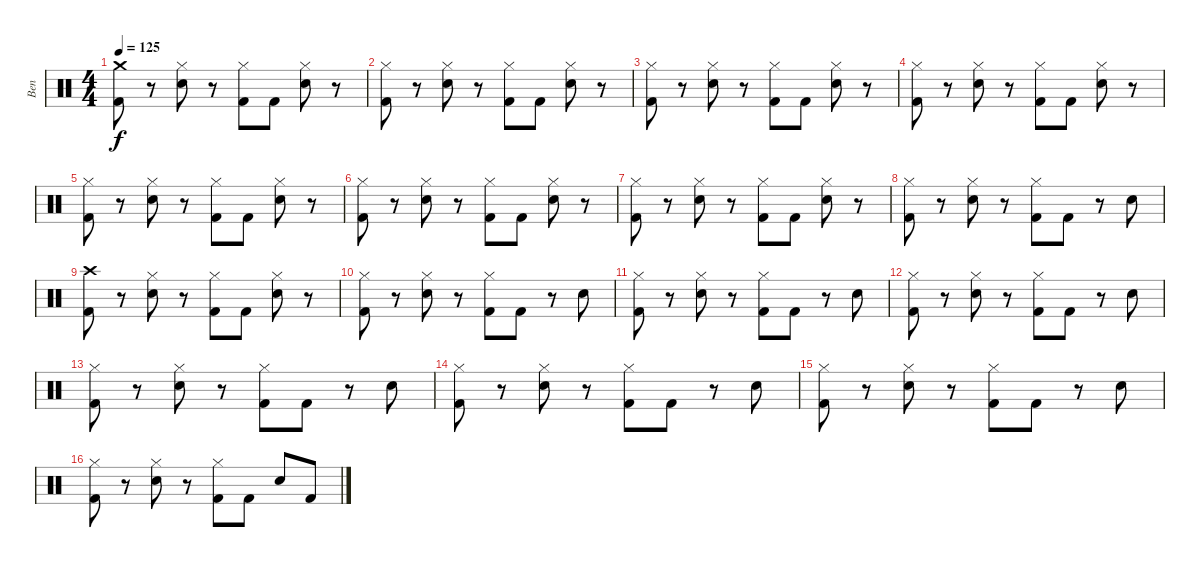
\track ("Ben" "Ben") {instrument percussion}
\staff {score}
\articulation defaults
\ts (4 4)
\tempo 125
\clef neutral
\ks c
("Crash medium (hit)" "Kick (hit) 2").8{dy f} r.8 ("Snare (hit) 2" "Hi-Hat (closed)").8 r.8 ("Kick (hit) 2" "Hi-Hat (closed)").8 "Kick (hit) 2".8 ("Snare (hit) 2" "Hi-Hat (closed)").8 r.8 |
("Kick (hit) 2" "Hi-Hat (closed)").8 r.8 ("Snare (hit) 2" "Hi-Hat (closed)").8 r.8 ("Kick (hit) 2" "Hi-Hat (closed)").8 "Kick (hit) 2".8 ("Snare (hit) 2" "Hi-Hat (closed)").8 r.8 |
("Kick (hit) 2" "Hi-Hat (closed)").8 r.8 ("Snare (hit) 2" "Hi-Hat (closed)").8 r.8 ("Kick (hit) 2" "Hi-Hat (closed)").8 "Kick (hit) 2".8 ("Snare (hit) 2" "Hi-Hat (closed)").8 r.8 |
("Kick (hit) 2" "Hi-Hat (closed)").8 r.8 ("Snare (hit) 2" "Hi-Hat (closed)").8 r.8 ("Kick (hit) 2" "Hi-Hat (closed)").8 "Kick (hit) 2".8 ("Snare (hit) 2" "Hi-Hat (closed)").8 r.8 |
("Kick (hit) 2" "Hi-Hat (closed)").8 r.8 ("Snare (hit) 2" "Hi-Hat (closed)").8 r.8 ("Kick (hit) 2" "Hi-Hat (closed)").8 "Kick (hit) 2".8 ("Snare (hit) 2" "Hi-Hat (closed)").8 r.8 |
("Kick (hit) 2" "Hi-Hat (closed)").8 r.8 ("Snare (hit) 2" "Hi-Hat (closed)").8 r.8 ("Kick (hit) 2" "Hi-Hat (closed)").8 "Kick (hit) 2".8 ("Snare (hit) 2" "Hi-Hat (closed)").8 r.8 |
("Kick (hit) 2" "Hi-Hat (closed)").8 r.8 ("Snare (hit) 2" "Hi-Hat (closed)").8 r.8 ("Kick (hit) 2" "Hi-Hat (closed)").8 "Kick (hit) 2".8 ("Snare (hit) 2" "Hi-Hat (closed)").8 r.8 |
("Kick (hit) 2" "Hi-Hat (closed)").8 r.8 ("Snare (hit) 2" "Hi-Hat (closed)").8 r.8 ("Kick (hit) 2" "Hi-Hat (closed)").8 "Kick (hit) 2".8 r.8 "Snare (hit) 2".8 |
("Crash high (hit)" "Kick (hit) 2").8 r.8 ("Hi-Hat (closed)" "Snare (hit) 2").8 r.8 ("Hi-Hat (closed)" "Kick (hit) 2").8 "Kick (hit) 2".8 ("Hi-Hat (closed)" "Snare (hit) 2").8 r.8 |
("Kick (hit) 2" "Hi-Hat (closed)").8 r.8 ("Snare (hit) 2" "Hi-Hat (closed)").8 r.8 ("Kick (hit) 2" "Hi-Hat (closed)").8 "Kick (hit) 2".8 r.8 "Snare (hit) 2".8 |
("Kick (hit) 2" "Hi-Hat (closed)").8 r.8 ("Snare (hit) 2" "Hi-Hat (closed)").8 r.8 ("Kick (hit) 2" "Hi-Hat (closed)").8 "Kick (hit) 2".8 r.8 "Snare (hit) 2".8 |
("Kick (hit) 2" "Hi-Hat (closed)").8 r.8 ("Snare (hit) 2" "Hi-Hat (closed)").8 r.8 ("Kick (hit) 2" "Hi-Hat (closed)").8 "Kick (hit) 2".8 r.8 "Snare (hit) 2".8 |
("Kick (hit) 2" "Hi-Hat (closed)").8 r.8 ("Snare (hit) 2" "Hi-Hat (closed)").8 r.8 ("Kick (hit) 2" "Hi-Hat (closed)").8 "Kick (hit) 2".8 r.8 "Snare (hit) 2".8 |
("Kick (hit) 2" "Hi-Hat (closed)").8 r.8 ("Snare (hit) 2" "Hi-Hat (closed)").8 r.8 ("Kick (hit) 2" "Hi-Hat (closed)").8 "Kick (hit) 2".8 r.8 "Snare (hit) 2".8 |
("Kick (hit) 2" "Hi-Hat (closed)").8 r.8 ("Snare (hit) 2" "Hi-Hat (closed)").8 r.8 ("Kick (hit) 2" "Hi-Hat (closed)").8 "Kick (hit) 2".8 r.8 "Snare (hit) 2".8 |
("Kick (hit) 2" "Hi-Hat (closed)").8 r.8 ("Snare (hit) 2" "Hi-Hat (closed)").8 r.8 ("Kick (hit) 2" "Hi-Hat (closed)").8 "Kick (hit) 2".8 "Snare (hit) 2".8 "Kick (hit) 2".8
